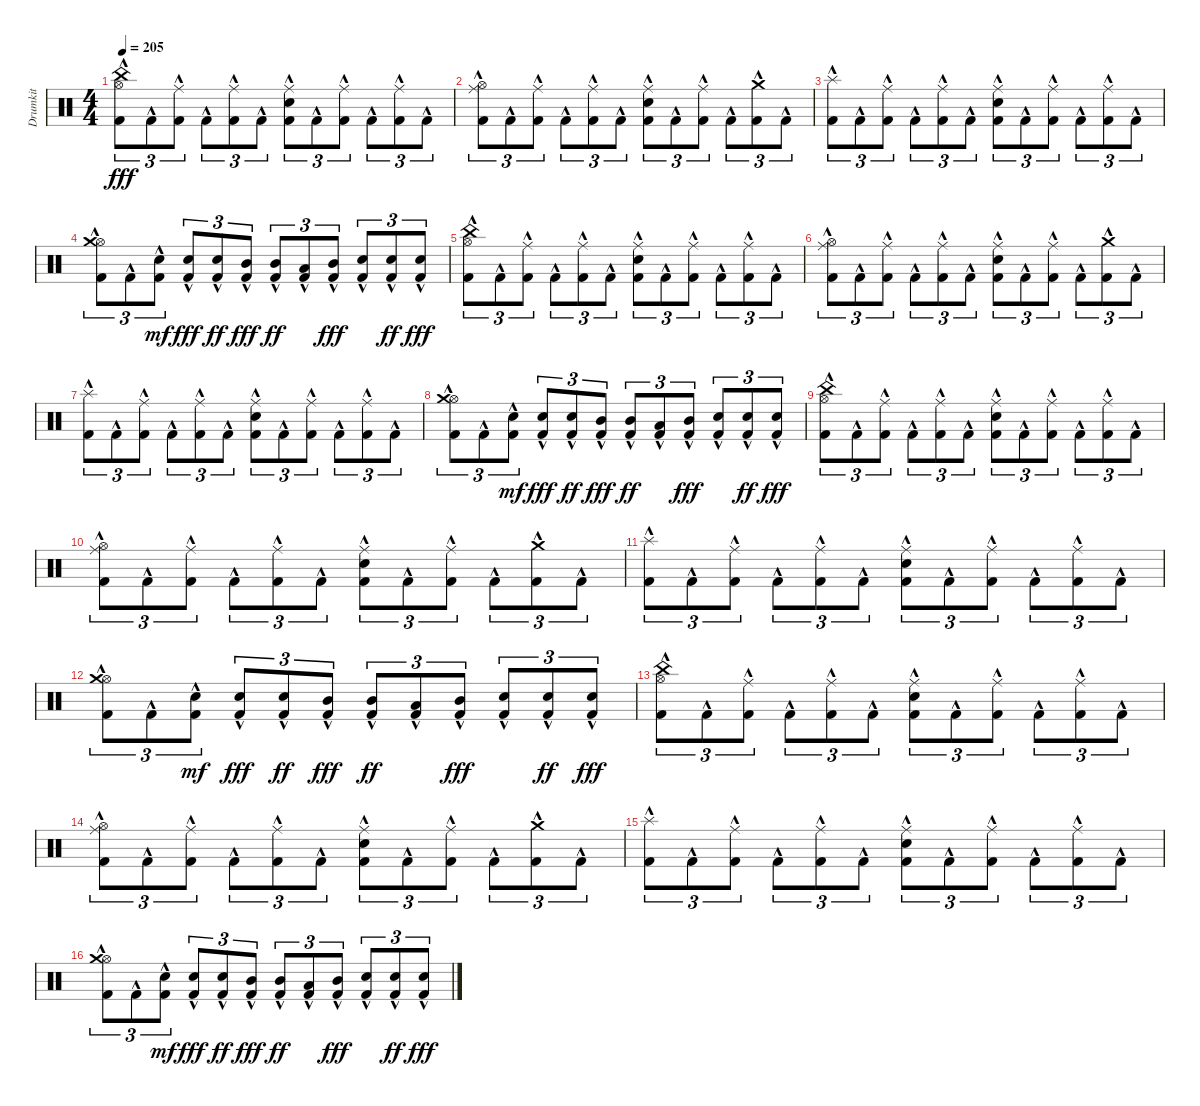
\track ("Drumkit" "Drumkit") {instrument percussion}
\staff {score}
\articulation defaults
\ts (4 4)
\tempo 205
\clef neutral
\ks c
("Kick (hit) 2"{hac} "Hi-Hat (open)"{hac} "China (hit)"{hac}).8{tu (3 2) dy fff} "Kick (hit) 2"{hac}.8{tu (3 2)} ("Kick (hit) 2"{hac} "Ride (middle)"{hac}).8{tu (3 2)} "Kick (hit) 2"{hac}.8{tu (3 2)} ("Kick (hit) 2"{hac} "Ride (middle)"{hac}).8{tu (3 2)} "Kick (hit) 2"{hac}.8{tu (3 2)} ("Kick (hit) 2"{hac} "Snare (hit) 2"{hac} "Ride (middle)"{hac}).8{tu (3 2)} "Kick (hit) 2"{hac}.8{tu (3 2)} ("Kick (hit) 2"{hac} "Ride (middle)"{hac}).8{tu (3 2)} "Kick (hit) 2"{hac}.8{tu (3 2)} ("Kick (hit) 2"{hac} "Ride (middle)"{hac}).8{tu (3 2)} "Kick (hit) 2"{hac}.8{tu (3 2)} |
("Kick (hit) 2"{hac} "Hi-Hat (open)"{hac} "Ride (middle)"{hac}).8{tu (3 2)} "Kick (hit) 2"{hac}.8{tu (3 2)} ("Kick (hit) 2"{hac} "Ride (middle)"{hac}).8{tu (3 2)} "Kick (hit) 2"{hac}.8{tu (3 2)} ("Kick (hit) 2"{hac} "Ride (middle)"{hac}).8{tu (3 2)} "Kick (hit) 2"{hac}.8{tu (3 2)} ("Kick (hit) 2"{hac} "Snare (hit) 2"{hac} "Ride (middle)"{hac}).8{tu (3 2)} "Kick (hit) 2"{hac}.8{tu (3 2)} ("Kick (hit) 2"{hac} "Ride (middle)"{hac}).8{tu (3 2)} "Kick (hit) 2"{hac}.8{tu (3 2)} ("Kick (hit) 2"{hac} "Crash medium (hit)"{hac}).8{tu (3 2)} "Kick (hit) 2"{hac}.8{tu (3 2)} |
("Kick (hit) 2"{hac} "Splash (hit)"{hac}).8{tu (3 2)} "Kick (hit) 2"{hac}.8{tu (3 2)} ("Kick (hit) 2"{hac} "Ride (middle)"{hac}).8{tu (3 2)} "Kick (hit) 2"{hac}.8{tu (3 2)} ("Kick (hit) 2"{hac} "Ride (middle)"{hac}).8{tu (3 2)} "Kick (hit) 2"{hac}.8{tu (3 2)} ("Kick (hit) 2"{hac} "Snare (hit) 2"{hac} "Ride (middle)"{hac}).8{tu (3 2)} "Kick (hit) 2"{hac}.8{tu (3 2)} ("Kick (hit) 2"{hac} "Ride (middle)"{hac}).8{tu (3 2)} "Kick (hit) 2"{hac}.8{tu (3 2)} ("Kick (hit) 2"{hac} "Ride (middle)"{hac}).8{tu (3 2)} "Kick (hit) 2"{hac}.8{tu (3 2)} |
("Kick (hit) 2"{hac} "Hi-Hat (open)"{hac} "Crash medium (hit)"{hac}).8{tu (3 2)} "Kick (hit) 2"{hac}.8{tu (3 2)} ("Kick (hit) 2"{hac} "Snare (hit) 2"{hac}).8{tu (3 2) dy mf} ("Kick (hit) 2"{hac} "Snare (hit) 2"{hac}).8{tu (3 2) dy fff} ("Kick (hit) 2"{hac} "Snare (hit) 2"{hac}).8{tu (3 2) dy ff} ("Kick (hit) 2"{hac} "Mid Tom (hit)"{hac}).8{tu (3 2) dy fff} ("Kick (hit) 2"{hac} "Mid Tom (hit)"{hac}).8{tu (3 2) dy ff} ("Kick (hit) 2"{hac} "Low Tom (hit)"{hac}).8{tu (3 2)} ("Kick (hit) 2"{hac} "Mid Tom (hit)"{hac}).8{tu (3 2) dy fff} ("Kick (hit) 2"{hac} "Snare (hit) 2"{hac}).8{tu (3 2)} ("Kick (hit) 2"{hac} "Snare (hit) 2"{hac}).8{tu (3 2) dy ff} ("Kick (hit) 2"{hac} "Snare (hit) 2"{hac}).8{tu (3 2) dy fff} |
("Kick (hit) 2"{hac} "Hi-Hat (open)"{hac} "China (hit)"{hac}).8{tu (3 2)} "Kick (hit) 2"{hac}.8{tu (3 2)} ("Kick (hit) 2"{hac} "Ride (middle)"{hac}).8{tu (3 2)} "Kick (hit) 2"{hac}.8{tu (3 2)} ("Kick (hit) 2"{hac} "Ride (middle)"{hac}).8{tu (3 2)} "Kick (hit) 2"{hac}.8{tu (3 2)} ("Kick (hit) 2"{hac} "Snare (hit) 2"{hac} "Ride (middle)"{hac}).8{tu (3 2)} "Kick (hit) 2"{hac}.8{tu (3 2)} ("Kick (hit) 2"{hac} "Ride (middle)"{hac}).8{tu (3 2)} "Kick (hit) 2"{hac}.8{tu (3 2)} ("Kick (hit) 2"{hac} "Ride (middle)"{hac}).8{tu (3 2)} "Kick (hit) 2"{hac}.8{tu (3 2)} |
("Kick (hit) 2"{hac} "Hi-Hat (open)"{hac} "Ride (middle)"{hac}).8{tu (3 2)} "Kick (hit) 2"{hac}.8{tu (3 2)} ("Kick (hit) 2"{hac} "Ride (middle)"{hac}).8{tu (3 2)} "Kick (hit) 2"{hac}.8{tu (3 2)} ("Kick (hit) 2"{hac} "Ride (middle)"{hac}).8{tu (3 2)} "Kick (hit) 2"{hac}.8{tu (3 2)} ("Kick (hit) 2"{hac} "Snare (hit) 2"{hac} "Ride (middle)"{hac}).8{tu (3 2)} "Kick (hit) 2"{hac}.8{tu (3 2)} ("Kick (hit) 2"{hac} "Ride (middle)"{hac}).8{tu (3 2)} "Kick (hit) 2"{hac}.8{tu (3 2)} ("Kick (hit) 2"{hac} "Crash medium (hit)"{hac}).8{tu (3 2)} "Kick (hit) 2"{hac}.8{tu (3 2)} |
("Kick (hit) 2"{hac} "Splash (hit)"{hac}).8{tu (3 2)} "Kick (hit) 2"{hac}.8{tu (3 2)} ("Kick (hit) 2"{hac} "Ride (middle)"{hac}).8{tu (3 2)} "Kick (hit) 2"{hac}.8{tu (3 2)} ("Kick (hit) 2"{hac} "Ride (middle)"{hac}).8{tu (3 2)} "Kick (hit) 2"{hac}.8{tu (3 2)} ("Kick (hit) 2"{hac} "Snare (hit) 2"{hac} "Ride (middle)"{hac}).8{tu (3 2)} "Kick (hit) 2"{hac}.8{tu (3 2)} ("Kick (hit) 2"{hac} "Ride (middle)"{hac}).8{tu (3 2)} "Kick (hit) 2"{hac}.8{tu (3 2)} ("Kick (hit) 2"{hac} "Ride (middle)"{hac}).8{tu (3 2)} "Kick (hit) 2"{hac}.8{tu (3 2)} |
("Kick (hit) 2"{hac} "Hi-Hat (open)"{hac} "Crash medium (hit)"{hac}).8{tu (3 2)} "Kick (hit) 2"{hac}.8{tu (3 2)} ("Kick (hit) 2"{hac} "Snare (hit) 2"{hac}).8{tu (3 2) dy mf} ("Kick (hit) 2"{hac} "Snare (hit) 2"{hac}).8{tu (3 2) dy fff} ("Kick (hit) 2"{hac} "Snare (hit) 2"{hac}).8{tu (3 2) dy ff} ("Kick (hit) 2"{hac} "Mid Tom (hit)"{hac}).8{tu (3 2) dy fff} ("Kick (hit) 2"{hac} "Mid Tom (hit)"{hac}).8{tu (3 2) dy ff} ("Kick (hit) 2"{hac} "Low Tom (hit)"{hac}).8{tu (3 2)} ("Kick (hit) 2"{hac} "Mid Tom (hit)"{hac}).8{tu (3 2) dy fff} ("Kick (hit) 2"{hac} "Snare (hit) 2"{hac}).8{tu (3 2)} ("Kick (hit) 2"{hac} "Snare (hit) 2"{hac}).8{tu (3 2) dy ff} ("Kick (hit) 2"{hac} "Snare (hit) 2"{hac}).8{tu (3 2) dy fff} |
("Kick (hit) 2"{hac} "Hi-Hat (open)"{hac} "China (hit)"{hac}).8{tu (3 2)} "Kick (hit) 2"{hac}.8{tu (3 2)} ("Kick (hit) 2"{hac} "Ride (middle)"{hac}).8{tu (3 2)} "Kick (hit) 2"{hac}.8{tu (3 2)} ("Kick (hit) 2"{hac} "Ride (middle)"{hac}).8{tu (3 2)} "Kick (hit) 2"{hac}.8{tu (3 2)} ("Kick (hit) 2"{hac} "Snare (hit) 2"{hac} "Ride (middle)"{hac}).8{tu (3 2)} "Kick (hit) 2"{hac}.8{tu (3 2)} ("Kick (hit) 2"{hac} "Ride (middle)"{hac}).8{tu (3 2)} "Kick (hit) 2"{hac}.8{tu (3 2)} ("Kick (hit) 2"{hac} "Ride (middle)"{hac}).8{tu (3 2)} "Kick (hit) 2"{hac}.8{tu (3 2)} |
("Kick (hit) 2"{hac} "Hi-Hat (open)"{hac} "Ride (middle)"{hac}).8{tu (3 2)} "Kick (hit) 2"{hac}.8{tu (3 2)} ("Kick (hit) 2"{hac} "Ride (middle)"{hac}).8{tu (3 2)} "Kick (hit) 2"{hac}.8{tu (3 2)} ("Kick (hit) 2"{hac} "Ride (middle)"{hac}).8{tu (3 2)} "Kick (hit) 2"{hac}.8{tu (3 2)} ("Kick (hit) 2"{hac} "Snare (hit) 2"{hac} "Ride (middle)"{hac}).8{tu (3 2)} "Kick (hit) 2"{hac}.8{tu (3 2)} ("Kick (hit) 2"{hac} "Ride (middle)"{hac}).8{tu (3 2)} "Kick (hit) 2"{hac}.8{tu (3 2)} ("Kick (hit) 2"{hac} "Crash medium (hit)"{hac}).8{tu (3 2)} "Kick (hit) 2"{hac}.8{tu (3 2)} |
("Kick (hit) 2"{hac} "Splash (hit)"{hac}).8{tu (3 2)} "Kick (hit) 2"{hac}.8{tu (3 2)} ("Kick (hit) 2"{hac} "Ride (middle)"{hac}).8{tu (3 2)} "Kick (hit) 2"{hac}.8{tu (3 2)} ("Kick (hit) 2"{hac} "Ride (middle)"{hac}).8{tu (3 2)} "Kick (hit) 2"{hac}.8{tu (3 2)} ("Kick (hit) 2"{hac} "Snare (hit) 2"{hac} "Ride (middle)"{hac}).8{tu (3 2)} "Kick (hit) 2"{hac}.8{tu (3 2)} ("Kick (hit) 2"{hac} "Ride (middle)"{hac}).8{tu (3 2)} "Kick (hit) 2"{hac}.8{tu (3 2)} ("Kick (hit) 2"{hac} "Ride (middle)"{hac}).8{tu (3 2)} "Kick (hit) 2"{hac}.8{tu (3 2)} |
("Kick (hit) 2"{hac} "Hi-Hat (open)"{hac} "Crash medium (hit)"{hac}).8{tu (3 2)} "Kick (hit) 2"{hac}.8{tu (3 2)} ("Kick (hit) 2"{hac} "Snare (hit) 2"{hac}).8{tu (3 2) dy mf} ("Kick (hit) 2"{hac} "Snare (hit) 2"{hac}).8{tu (3 2) dy fff} ("Kick (hit) 2"{hac} "Snare (hit) 2"{hac}).8{tu (3 2) dy ff} ("Kick (hit) 2"{hac} "Mid Tom (hit)"{hac}).8{tu (3 2) dy fff} ("Kick (hit) 2"{hac} "Mid Tom (hit)"{hac}).8{tu (3 2) dy ff} ("Kick (hit) 2"{hac} "Low Tom (hit)"{hac}).8{tu (3 2)} ("Kick (hit) 2"{hac} "Mid Tom (hit)"{hac}).8{tu (3 2) dy fff} ("Kick (hit) 2"{hac} "Snare (hit) 2"{hac}).8{tu (3 2)} ("Kick (hit) 2"{hac} "Snare (hit) 2"{hac}).8{tu (3 2) dy ff} ("Kick (hit) 2"{hac} "Snare (hit) 2"{hac}).8{tu (3 2) dy fff} |
("Kick (hit) 2"{hac} "Hi-Hat (open)"{hac} "China (hit)"{hac}).8{tu (3 2)} "Kick (hit) 2"{hac}.8{tu (3 2)} ("Kick (hit) 2"{hac} "Ride (middle)"{hac}).8{tu (3 2)} "Kick (hit) 2"{hac}.8{tu (3 2)} ("Kick (hit) 2"{hac} "Ride (middle)"{hac}).8{tu (3 2)} "Kick (hit) 2"{hac}.8{tu (3 2)} ("Kick (hit) 2"{hac} "Snare (hit) 2"{hac} "Ride (middle)"{hac}).8{tu (3 2)} "Kick (hit) 2"{hac}.8{tu (3 2)} ("Kick (hit) 2"{hac} "Ride (middle)"{hac}).8{tu (3 2)} "Kick (hit) 2"{hac}.8{tu (3 2)} ("Kick (hit) 2"{hac} "Ride (middle)"{hac}).8{tu (3 2)} "Kick (hit) 2"{hac}.8{tu (3 2)} |
("Kick (hit) 2"{hac} "Hi-Hat (open)"{hac} "Ride (middle)"{hac}).8{tu (3 2)} "Kick (hit) 2"{hac}.8{tu (3 2)} ("Kick (hit) 2"{hac} "Ride (middle)"{hac}).8{tu (3 2)} "Kick (hit) 2"{hac}.8{tu (3 2)} ("Kick (hit) 2"{hac} "Ride (middle)"{hac}).8{tu (3 2)} "Kick (hit) 2"{hac}.8{tu (3 2)} ("Kick (hit) 2"{hac} "Snare (hit) 2"{hac} "Ride (middle)"{hac}).8{tu (3 2)} "Kick (hit) 2"{hac}.8{tu (3 2)} ("Kick (hit) 2"{hac} "Ride (middle)"{hac}).8{tu (3 2)} "Kick (hit) 2"{hac}.8{tu (3 2)} ("Kick (hit) 2"{hac} "Crash medium (hit)"{hac}).8{tu (3 2)} "Kick (hit) 2"{hac}.8{tu (3 2)} |
("Kick (hit) 2"{hac} "Splash (hit)"{hac}).8{tu (3 2)} "Kick (hit) 2"{hac}.8{tu (3 2)} ("Kick (hit) 2"{hac} "Ride (middle)"{hac}).8{tu (3 2)} "Kick (hit) 2"{hac}.8{tu (3 2)} ("Kick (hit) 2"{hac} "Ride (middle)"{hac}).8{tu (3 2)} "Kick (hit) 2"{hac}.8{tu (3 2)} ("Kick (hit) 2"{hac} "Snare (hit) 2"{hac} "Ride (middle)"{hac}).8{tu (3 2)} "Kick (hit) 2"{hac}.8{tu (3 2)} ("Kick (hit) 2"{hac} "Ride (middle)"{hac}).8{tu (3 2)} "Kick (hit) 2"{hac}.8{tu (3 2)} ("Kick (hit) 2"{hac} "Ride (middle)"{hac}).8{tu (3 2)} "Kick (hit) 2"{hac}.8{tu (3 2)} |
("Kick (hit) 2"{hac} "Hi-Hat (open)"{hac} "Crash medium (hit)"{hac}).8{tu (3 2)} "Kick (hit) 2"{hac}.8{tu (3 2)} ("Kick (hit) 2"{hac} "Snare (hit) 2"{hac}).8{tu (3 2) dy mf} ("Kick (hit) 2"{hac} "Snare (hit) 2"{hac}).8{tu (3 2) dy fff} ("Kick (hit) 2"{hac} "Snare (hit) 2"{hac}).8{tu (3 2) dy ff} ("Kick (hit) 2"{hac} "Mid Tom (hit)"{hac}).8{tu (3 2) dy fff} ("Kick (hit) 2"{hac} "Mid Tom (hit)"{hac}).8{tu (3 2) dy ff} ("Kick (hit) 2"{hac} "Low Tom (hit)"{hac}).8{tu (3 2)} ("Kick (hit) 2"{hac} "Mid Tom (hit)"{hac}).8{tu (3 2) dy fff} ("Kick (hit) 2"{hac} "Snare (hit) 2"{hac}).8{tu (3 2)} ("Kick (hit) 2"{hac} "Snare (hit) 2"{hac}).8{tu (3 2) dy ff} ("Kick (hit) 2"{hac} "Snare (hit) 2"{hac}).8{tu (3 2) dy fff}
